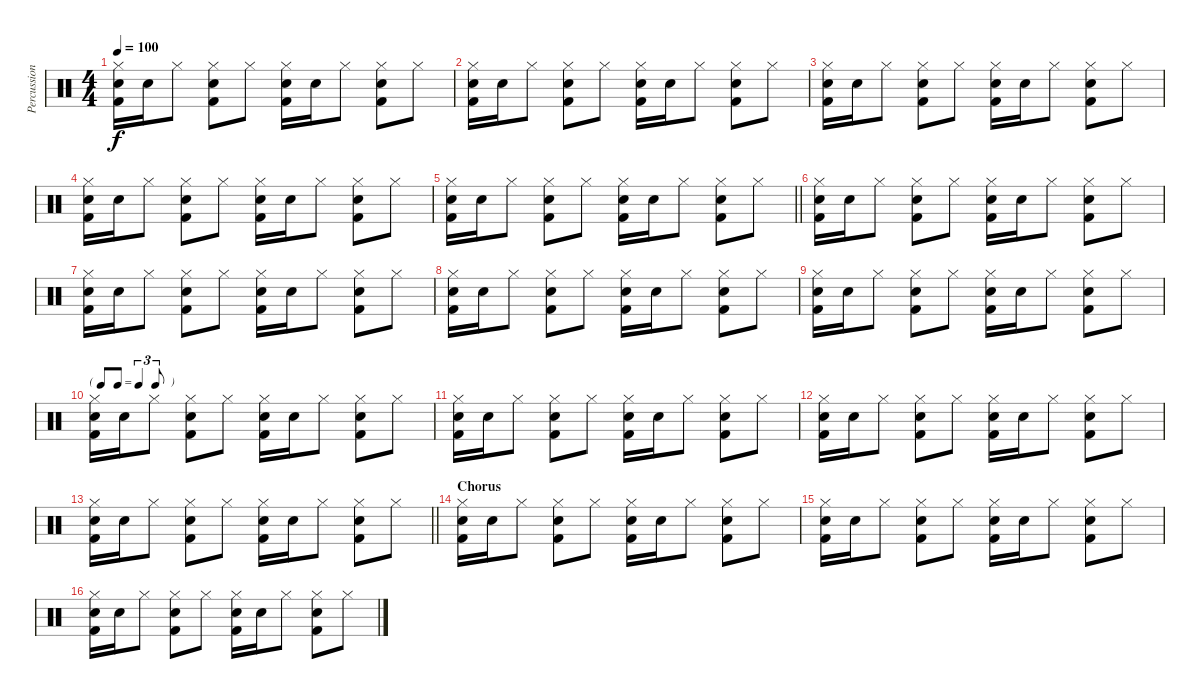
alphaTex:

\track ("Percussion" "Percussion") {instrument percussion}
\staff {score}
\articulation defaults
\ts (4 4)
\tempo 100
\clef neutral
\ks c
("Snare (hit) 2" "Hi-Hat (closed)" "Kick (hit) 2").16{dy f} "Snare (hit) 2".16 "Hi-Hat (closed)".8 ("Snare (hit) 2" "Hi-Hat (closed)" "Kick (hit) 2").8 "Hi-Hat (closed)".8 ("Snare (hit) 2" "Hi-Hat (closed)" "Kick (hit) 2").16 "Snare (hit) 2".16 "Hi-Hat (closed)".8 ("Snare (hit) 2" "Hi-Hat (closed)" "Kick (hit) 2").8 "Hi-Hat (closed)".8 |
("Snare (hit) 2" "Hi-Hat (closed)" "Kick (hit) 2").16 "Snare (hit) 2".16 "Hi-Hat (closed)".8 ("Snare (hit) 2" "Hi-Hat (closed)" "Kick (hit) 2").8 "Hi-Hat (closed)".8 ("Snare (hit) 2" "Hi-Hat (closed)" "Kick (hit) 2").16 "Snare (hit) 2".16 "Hi-Hat (closed)".8 ("Snare (hit) 2" "Hi-Hat (closed)" "Kick (hit) 2").8 "Hi-Hat (closed)".8 |
("Snare (hit) 2" "Hi-Hat (closed)" "Kick (hit) 2").16 "Snare (hit) 2".16 "Hi-Hat (closed)".8 ("Snare (hit) 2" "Hi-Hat (closed)" "Kick (hit) 2").8 "Hi-Hat (closed)".8 ("Snare (hit) 2" "Hi-Hat (closed)" "Kick (hit) 2").16 "Snare (hit) 2".16 "Hi-Hat (closed)".8 ("Snare (hit) 2" "Hi-Hat (closed)" "Kick (hit) 2").8 "Hi-Hat (closed)".8 |
("Snare (hit) 2" "Hi-Hat (closed)" "Kick (hit) 2").16 "Snare (hit) 2".16 "Hi-Hat (closed)".8 ("Snare (hit) 2" "Hi-Hat (closed)" "Kick (hit) 2").8 "Hi-Hat (closed)".8 ("Snare (hit) 2" "Hi-Hat (closed)" "Kick (hit) 2").16 "Snare (hit) 2".16 "Hi-Hat (closed)".8 ("Snare (hit) 2" "Hi-Hat (closed)" "Kick (hit) 2").8 "Hi-Hat (closed)".8 |
\barLineRight lightlight
("Snare (hit) 2" "Hi-Hat (closed)" "Kick (hit) 2").16 "Snare (hit) 2".16 "Hi-Hat (closed)".8 ("Snare (hit) 2" "Hi-Hat (closed)" "Kick (hit) 2").8 "Hi-Hat (closed)".8 ("Snare (hit) 2" "Hi-Hat (closed)" "Kick (hit) 2").16 "Snare (hit) 2".16 "Hi-Hat (closed)".8 ("Snare (hit) 2" "Hi-Hat (closed)" "Kick (hit) 2").8 "Hi-Hat (closed)".8 |
("Snare (hit) 2" "Hi-Hat (closed)" "Kick (hit) 2").16 "Snare (hit) 2".16 "Hi-Hat (closed)".8 ("Snare (hit) 2" "Hi-Hat (closed)" "Kick (hit) 2").8 "Hi-Hat (closed)".8 ("Snare (hit) 2" "Hi-Hat (closed)" "Kick (hit) 2").16 "Snare (hit) 2".16 "Hi-Hat (closed)".8 ("Snare (hit) 2" "Hi-Hat (closed)" "Kick (hit) 2").8 "Hi-Hat (closed)".8 |
("Snare (hit) 2" "Hi-Hat (closed)" "Kick (hit) 2").16 "Snare (hit) 2".16 "Hi-Hat (closed)".8 ("Snare (hit) 2" "Hi-Hat (closed)" "Kick (hit) 2").8 "Hi-Hat (closed)".8 ("Snare (hit) 2" "Hi-Hat (closed)" "Kick (hit) 2").16 "Snare (hit) 2".16 "Hi-Hat (closed)".8 ("Snare (hit) 2" "Hi-Hat (closed)" "Kick (hit) 2").8 "Hi-Hat (closed)".8 |
("Snare (hit) 2" "Hi-Hat (closed)" "Kick (hit) 2").16 "Snare (hit) 2".16 "Hi-Hat (closed)".8 ("Snare (hit) 2" "Hi-Hat (closed)" "Kick (hit) 2").8 "Hi-Hat (closed)".8 ("Snare (hit) 2" "Hi-Hat (closed)" "Kick (hit) 2").16 "Snare (hit) 2".16 "Hi-Hat (closed)".8 ("Snare (hit) 2" "Hi-Hat (closed)" "Kick (hit) 2").8 "Hi-Hat (closed)".8 |
("Snare (hit) 2" "Hi-Hat (closed)" "Kick (hit) 2").16 "Snare (hit) 2".16 "Hi-Hat (closed)".8 ("Snare (hit) 2" "Hi-Hat (closed)" "Kick (hit) 2").8 "Hi-Hat (closed)".8 ("Snare (hit) 2" "Hi-Hat (closed)" "Kick (hit) 2").16 "Snare (hit) 2".16 "Hi-Hat (closed)".8 ("Snare (hit) 2" "Hi-Hat (closed)" "Kick (hit) 2").8 "Hi-Hat (closed)".8 |
\tf triplet8th
("Snare (hit) 2" "Hi-Hat (closed)" "Kick (hit) 2").16 "Snare (hit) 2".16 "Hi-Hat (closed)".8 ("Snare (hit) 2" "Hi-Hat (closed)" "Kick (hit) 2").8 "Hi-Hat (closed)".8 ("Snare (hit) 2" "Hi-Hat (closed)" "Kick (hit) 2").16 "Snare (hit) 2".16 "Hi-Hat (closed)".8 ("Snare (hit) 2" "Hi-Hat (closed)" "Kick (hit) 2").8 "Hi-Hat (closed)".8 |
("Snare (hit) 2" "Hi-Hat (closed)" "Kick (hit) 2").16 "Snare (hit) 2".16 "Hi-Hat (closed)".8 ("Snare (hit) 2" "Hi-Hat (closed)" "Kick (hit) 2").8 "Hi-Hat (closed)".8 ("Snare (hit) 2" "Hi-Hat (closed)" "Kick (hit) 2").16 "Snare (hit) 2".16 "Hi-Hat (closed)".8 ("Snare (hit) 2" "Hi-Hat (closed)" "Kick (hit) 2").8 "Hi-Hat (closed)".8 |
("Snare (hit) 2" "Hi-Hat (closed)" "Kick (hit) 2").16 "Snare (hit) 2".16 "Hi-Hat (closed)".8 ("Snare (hit) 2" "Hi-Hat (closed)" "Kick (hit) 2").8 "Hi-Hat (closed)".8 ("Snare (hit) 2" "Hi-Hat (closed)" "Kick (hit) 2").16 "Snare (hit) 2".16 "Hi-Hat (closed)".8 ("Snare (hit) 2" "Hi-Hat (closed)" "Kick (hit) 2").8 "Hi-Hat (closed)".8 |
\barLineRight lightlight
("Snare (hit) 2" "Hi-Hat (closed)" "Kick (hit) 2").16 "Snare (hit) 2".16 "Hi-Hat (closed)".8 ("Snare (hit) 2" "Hi-Hat (closed)" "Kick (hit) 2").8 "Hi-Hat (closed)".8 ("Snare (hit) 2" "Hi-Hat (closed)" "Kick (hit) 2").16 "Snare (hit) 2".16 "Hi-Hat (closed)".8 ("Snare (hit) 2" "Hi-Hat (closed)" "Kick (hit) 2").8 "Hi-Hat (closed)".8 |
\section ("" "Chorus")
("Snare (hit) 2" "Hi-Hat (closed)" "Kick (hit) 2").16 "Snare (hit) 2".16 "Hi-Hat (closed)".8 ("Snare (hit) 2" "Hi-Hat (closed)" "Kick (hit) 2").8 "Hi-Hat (closed)".8 ("Snare (hit) 2" "Hi-Hat (closed)" "Kick (hit) 2").16 "Snare (hit) 2".16 "Hi-Hat (closed)".8 ("Snare (hit) 2" "Hi-Hat (closed)" "Kick (hit) 2").8 "Hi-Hat (closed)".8 |
("Snare (hit) 2" "Hi-Hat (closed)" "Kick (hit) 2").16 "Snare (hit) 2".16 "Hi-Hat (closed)".8 ("Snare (hit) 2" "Hi-Hat (closed)" "Kick (hit) 2").8 "Hi-Hat (closed)".8 ("Snare (hit) 2" "Hi-Hat (closed)" "Kick (hit) 2").16 "Snare (hit) 2".16 "Hi-Hat (closed)".8 ("Snare (hit) 2" "Hi-Hat (closed)" "Kick (hit) 2").8 "Hi-Hat (closed)".8 |
("Snare (hit) 2" "Hi-Hat (closed)" "Kick (hit) 2").16 "Snare (hit) 2".16 "Hi-Hat (closed)".8 ("Snare (hit) 2" "Hi-Hat (closed)" "Kick (hit) 2").8 "Hi-Hat (closed)".8 ("Snare (hit) 2" "Hi-Hat (closed)" "Kick (hit) 2").16 "Snare (hit) 2".16 "Hi-Hat (closed)".8 ("Snare (hit) 2" "Hi-Hat (closed)" "Kick (hit) 2").8 "Hi-Hat (closed)".8
